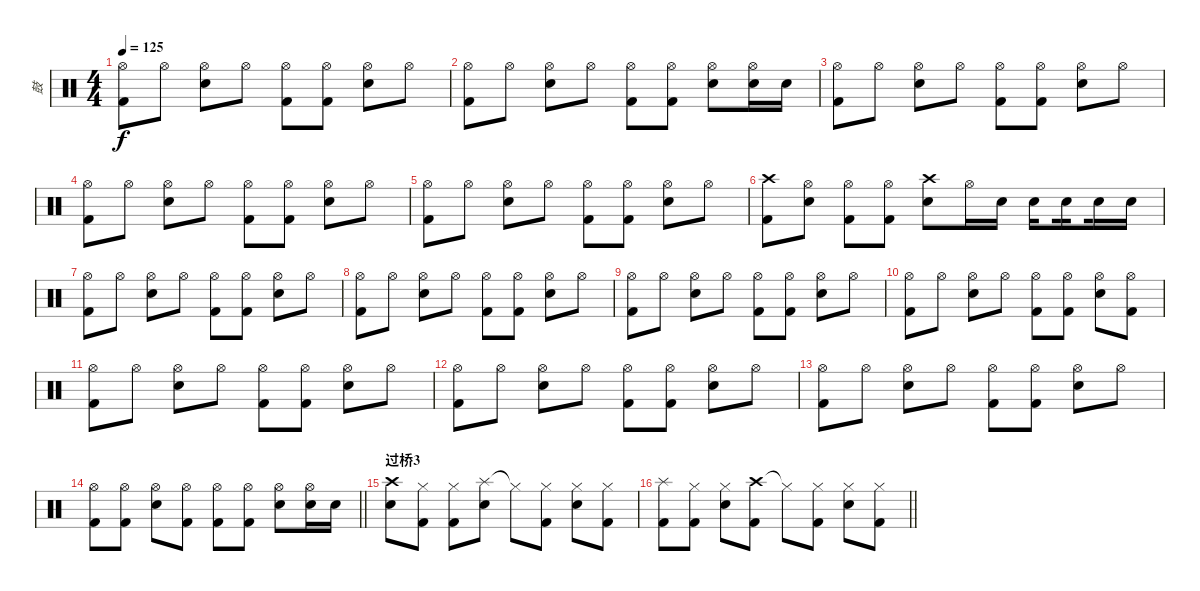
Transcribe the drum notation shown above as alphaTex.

\track ("鼓" "鼓") {instrument percussion}
\staff {score}
\articulation defaults
\ts (4 4)
\tempo 125
\clef neutral
\ks c
("Hi-Hat (open)" "Kick (hit) 2").8{dy f} "Hi-Hat (open)".8 ("Hi-Hat (open)" "Snare (hit) 2").8 "Hi-Hat (open)".8 ("Hi-Hat (open)" "Kick (hit) 2").8 ("Hi-Hat (open)" "Kick (hit) 2").8 ("Hi-Hat (open)" "Snare (hit) 2").8 "Hi-Hat (open)".8 |
("Hi-Hat (open)" "Kick (hit) 2").8 "Hi-Hat (open)".8 ("Hi-Hat (open)" "Snare (hit) 2").8 "Hi-Hat (open)".8 ("Hi-Hat (open)" "Kick (hit) 2").8 ("Hi-Hat (open)" "Kick (hit) 2").8 ("Hi-Hat (open)" "Snare (hit) 2").8 ("Hi-Hat (open)" "Snare (hit) 2").16 "Snare (hit) 2".16 |
("Hi-Hat (open)" "Kick (hit) 2").8 "Hi-Hat (open)".8 ("Hi-Hat (open)" "Snare (hit) 2").8 "Hi-Hat (open)".8 ("Hi-Hat (open)" "Kick (hit) 2").8 ("Hi-Hat (open)" "Kick (hit) 2").8 ("Hi-Hat (open)" "Snare (hit) 2").8 "Hi-Hat (open)".8 |
("Hi-Hat (open)" "Kick (hit) 2").8 "Hi-Hat (open)".8 ("Hi-Hat (open)" "Snare (hit) 2").8 "Hi-Hat (open)".8 ("Hi-Hat (open)" "Kick (hit) 2").8 ("Hi-Hat (open)" "Kick (hit) 2").8 ("Hi-Hat (open)" "Snare (hit) 2").8 "Hi-Hat (open)".8 |
("Hi-Hat (open)" "Kick (hit) 2").8 "Hi-Hat (open)".8 ("Hi-Hat (open)" "Snare (hit) 2").8 "Hi-Hat (open)".8 ("Hi-Hat (open)" "Kick (hit) 2").8 ("Hi-Hat (open)" "Kick (hit) 2").8 ("Hi-Hat (open)" "Snare (hit) 2").8 "Hi-Hat (open)".8 |
("Crash high (hit)" "Kick (hit) 2").8 ("Hi-Hat (open)" "Snare (hit) 2").8 ("Hi-Hat (open)" "Kick (hit) 2").8 ("Hi-Hat (open)" "Kick (hit) 2").8 ("Crash high (hit)" "Snare (hit) 2").8 "Hi-Hat (open)".16 "Snare (hit) 2".16 "Snare (hit) 2".16{beam splitsecondary} "Snare (hit) 2".16{beam splitsecondary} "Snare (hit) 2".16 "Snare (hit) 2".16 |
("Hi-Hat (open)" "Kick (hit) 2").8 "Hi-Hat (open)".8 ("Hi-Hat (open)" "Snare (hit) 2").8 "Hi-Hat (open)".8 ("Hi-Hat (open)" "Kick (hit) 2").8 ("Hi-Hat (open)" "Kick (hit) 2").8 ("Hi-Hat (open)" "Snare (hit) 2").8 "Hi-Hat (open)".8 |
("Hi-Hat (open)" "Kick (hit) 2").8 "Hi-Hat (open)".8 ("Hi-Hat (open)" "Snare (hit) 2").8 "Hi-Hat (open)".8 ("Hi-Hat (open)" "Kick (hit) 2").8 ("Hi-Hat (open)" "Kick (hit) 2").8 ("Hi-Hat (open)" "Snare (hit) 2").8 "Hi-Hat (open)".8 |
("Hi-Hat (open)" "Kick (hit) 2").8 "Hi-Hat (open)".8 ("Hi-Hat (open)" "Snare (hit) 2").8 "Hi-Hat (open)".8 ("Hi-Hat (open)" "Kick (hit) 2").8 ("Hi-Hat (open)" "Kick (hit) 2").8 ("Hi-Hat (open)" "Snare (hit) 2").8 "Hi-Hat (open)".8 |
("Hi-Hat (open)" "Kick (hit) 2").8 "Hi-Hat (open)".8 ("Hi-Hat (open)" "Snare (hit) 2").8 "Hi-Hat (open)".8 ("Hi-Hat (open)" "Kick (hit) 2").8 ("Hi-Hat (open)" "Kick (hit) 2").8 ("Hi-Hat (open)" "Snare (hit) 2").8 ("Hi-Hat (open)" "Kick (hit) 2").8 |
("Hi-Hat (open)" "Kick (hit) 2").8 "Hi-Hat (open)".8 ("Hi-Hat (open)" "Snare (hit) 2").8 "Hi-Hat (open)".8 ("Hi-Hat (open)" "Kick (hit) 2").8 ("Hi-Hat (open)" "Kick (hit) 2").8 ("Hi-Hat (open)" "Snare (hit) 2").8 "Hi-Hat (open)".8 |
("Hi-Hat (open)" "Kick (hit) 2").8 "Hi-Hat (open)".8 ("Hi-Hat (open)" "Snare (hit) 2").8 "Hi-Hat (open)".8 ("Hi-Hat (open)" "Kick (hit) 2").8 ("Hi-Hat (open)" "Kick (hit) 2").8 ("Hi-Hat (open)" "Snare (hit) 2").8 "Hi-Hat (open)".8 |
("Hi-Hat (open)" "Kick (hit) 2").8 "Hi-Hat (open)".8 ("Hi-Hat (open)" "Snare (hit) 2").8 "Hi-Hat (open)".8 ("Hi-Hat (open)" "Kick (hit) 2").8 ("Hi-Hat (open)" "Kick (hit) 2").8 ("Hi-Hat (open)" "Snare (hit) 2").8 "Hi-Hat (open)".8 |
\barLineRight lightlight
("Hi-Hat (open)" "Kick (hit) 2").8 ("Hi-Hat (open)" "Kick (hit) 2").8 ("Hi-Hat (open)" "Snare (hit) 2").8 ("Hi-Hat (open)" "Kick (hit) 2").8 ("Hi-Hat (open)" "Kick (hit) 2").8 ("Hi-Hat (open)" "Kick (hit) 2").8 ("Hi-Hat (open)" "Snare (hit) 2").8 ("Hi-Hat (open)" "Snare (hit) 2").16 "Snare (hit) 2".16 |
\section ("" "过桥3")
("Crash high (hit)" "Snare (hit) 2").8 ("Hi-Hat (closed)" "Kick (hit) 2").8 ("Hi-Hat (closed)" "Kick (hit) 2").8 ("Splash (hit)" "Snare (hit) 2").8 "Hi-Hat (closed)"{t}.8 ("Hi-Hat (closed)" "Kick (hit) 2").8 ("Hi-Hat (closed)" "Snare (hit) 2").8 ("Hi-Hat (closed)" "Kick (hit) 2").8 |
\barLineRight lightlight
("Splash (hit)" "Kick (hit) 2").8 ("Hi-Hat (closed)" "Kick (hit) 2").8 ("Hi-Hat (closed)" "Snare (hit) 2").8 ("Crash high (hit)" "Kick (hit) 2").8 "Hi-Hat (closed)"{t}.8 ("Hi-Hat (closed)" "Kick (hit) 2").8 ("Hi-Hat (closed)" "Snare (hit) 2").8 ("Hi-Hat (closed)" "Kick (hit) 2").8
